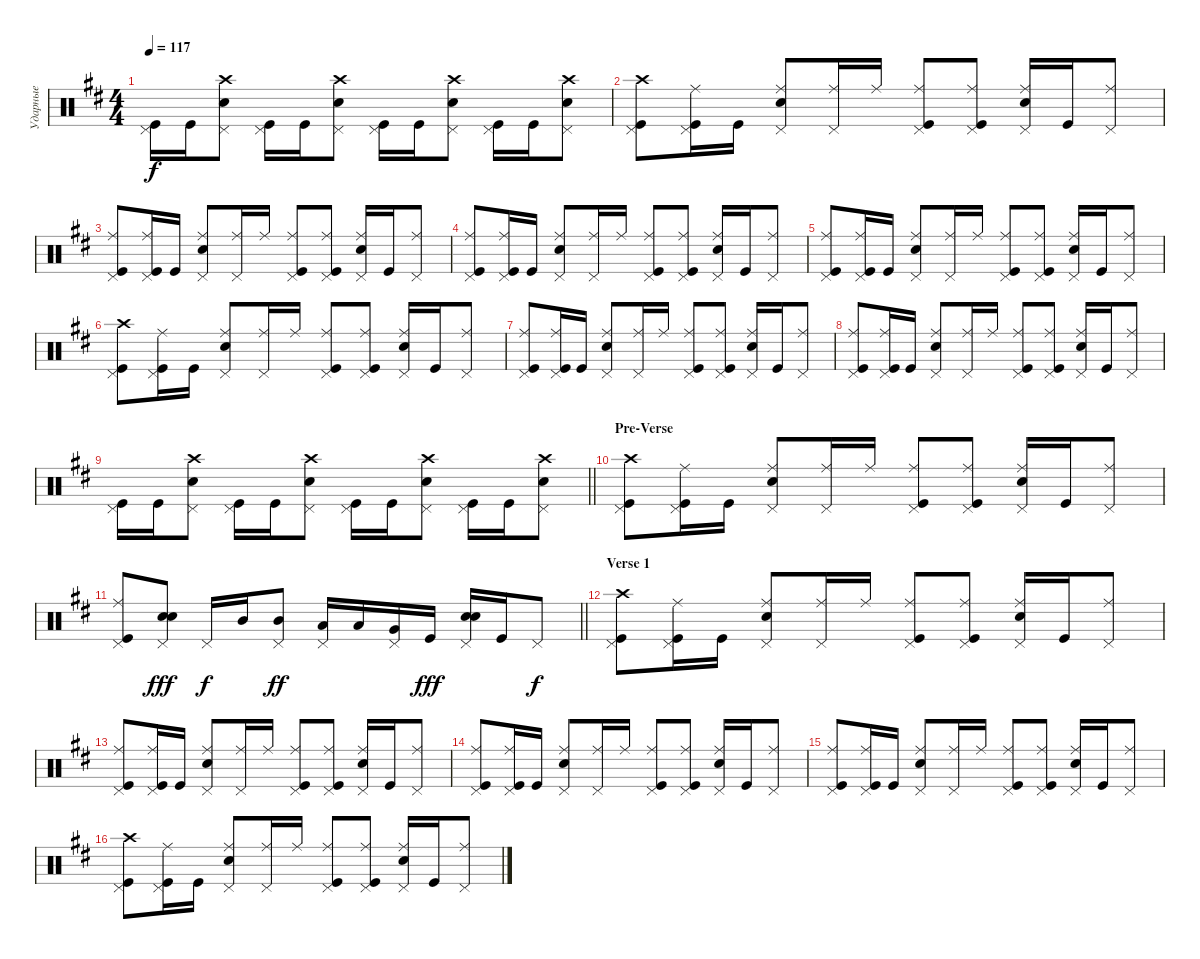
\track ("Ударные" "Ударные") {instrument percussion}
\staff {score}
\articulation defaults
\ts (4 4)
\tempo 117
\clef neutral
\ks d
("Pedal Hi-Hat (hit)" "Kick (hit)").16{dy f} "Kick (hit)".16 ("Snare (hit) 2" "Crash high (hit)" "Pedal Hi-Hat (hit)").8 ("Kick (hit)" "Pedal Hi-Hat (hit)").16 "Kick (hit)".16 ("Snare (hit) 2" "Crash high (hit)" "Pedal Hi-Hat (hit)").8 ("Kick (hit)" "Pedal Hi-Hat (hit)").16 "Kick (hit)".16 ("Snare (hit) 2" "Crash high (hit)" "Pedal Hi-Hat (hit)").8 ("Kick (hit)" "Pedal Hi-Hat (hit)").16 "Kick (hit)".16 ("Snare (hit) 2" "Crash high (hit)" "Pedal Hi-Hat (hit)").8 |
("Kick (hit)" "Crash high (hit)" "Pedal Hi-Hat (hit)").8 ("Kick (hit)" "Ride (middle)" "Pedal Hi-Hat (hit)").16 "Kick (hit)".16 ("Snare (hit) 2" "Ride (middle)" "Pedal Hi-Hat (hit)").8 ("Ride (middle)" "Pedal Hi-Hat (hit)").16 "Ride (middle)".16 ("Kick (hit)" "Ride (middle)" "Pedal Hi-Hat (hit)").8 ("Ride (middle)" "Kick (hit)" "Pedal Hi-Hat (hit)").8 ("Snare (hit) 2" "Ride (middle)" "Pedal Hi-Hat (hit)").16 "Kick (hit)".16 ("Ride (middle)" "Pedal Hi-Hat (hit)").8 |
("Kick (hit)" "Ride (middle)" "Pedal Hi-Hat (hit)").8 ("Kick (hit)" "Ride (middle)" "Pedal Hi-Hat (hit)").16 "Kick (hit)".16 ("Snare (hit) 2" "Ride (middle)" "Pedal Hi-Hat (hit)").8 ("Ride (middle)" "Pedal Hi-Hat (hit)").16 "Ride (middle)".16 ("Kick (hit)" "Ride (middle)" "Pedal Hi-Hat (hit)").8 ("Ride (middle)" "Kick (hit)" "Pedal Hi-Hat (hit)").8 ("Snare (hit) 2" "Ride (middle)" "Pedal Hi-Hat (hit)").16 "Kick (hit)".16 ("Ride (middle)" "Pedal Hi-Hat (hit)").8 |
("Kick (hit)" "Ride (middle)" "Pedal Hi-Hat (hit)").8 ("Kick (hit)" "Ride (middle)" "Pedal Hi-Hat (hit)").16 "Kick (hit)".16 ("Snare (hit) 2" "Ride (middle)" "Pedal Hi-Hat (hit)").8 ("Ride (middle)" "Pedal Hi-Hat (hit)").16 "Ride (middle)".16 ("Kick (hit)" "Ride (middle)" "Pedal Hi-Hat (hit)").8 ("Ride (middle)" "Kick (hit)" "Pedal Hi-Hat (hit)").8 ("Snare (hit) 2" "Ride (middle)" "Pedal Hi-Hat (hit)").16 "Kick (hit)".16 ("Ride (middle)" "Pedal Hi-Hat (hit)").8 |
("Kick (hit)" "Ride (middle)" "Pedal Hi-Hat (hit)").8 ("Kick (hit)" "Ride (middle)" "Pedal Hi-Hat (hit)").16 "Kick (hit)".16 ("Snare (hit) 2" "Ride (middle)" "Pedal Hi-Hat (hit)").8 ("Ride (middle)" "Pedal Hi-Hat (hit)").16 "Ride (middle)".16 ("Kick (hit)" "Ride (middle)" "Pedal Hi-Hat (hit)").8 ("Ride (middle)" "Kick (hit)" "Pedal Hi-Hat (hit)").8 ("Snare (hit) 2" "Ride (middle)" "Pedal Hi-Hat (hit)").16 "Kick (hit)".16 ("Ride (middle)" "Pedal Hi-Hat (hit)").8 |
("Kick (hit)" "Crash high (hit)" "Pedal Hi-Hat (hit)").8 ("Kick (hit)" "Ride (middle)" "Pedal Hi-Hat (hit)").16 "Kick (hit)".16 ("Snare (hit) 2" "Ride (middle)" "Pedal Hi-Hat (hit)").8 ("Ride (middle)" "Pedal Hi-Hat (hit)").16 "Ride (middle)".16 ("Kick (hit)" "Ride (middle)" "Pedal Hi-Hat (hit)").8 ("Ride (middle)" "Kick (hit)" "Pedal Hi-Hat (hit)").8 ("Snare (hit) 2" "Ride (middle)" "Pedal Hi-Hat (hit)").16 "Kick (hit)".16 ("Ride (middle)" "Pedal Hi-Hat (hit)").8 |
("Kick (hit)" "Ride (middle)" "Pedal Hi-Hat (hit)").8 ("Kick (hit)" "Ride (middle)" "Pedal Hi-Hat (hit)").16 "Kick (hit)".16 ("Snare (hit) 2" "Ride (middle)" "Pedal Hi-Hat (hit)").8 ("Ride (middle)" "Pedal Hi-Hat (hit)").16 "Ride (middle)".16 ("Kick (hit)" "Ride (middle)" "Pedal Hi-Hat (hit)").8 ("Ride (middle)" "Kick (hit)" "Pedal Hi-Hat (hit)").8 ("Snare (hit) 2" "Ride (middle)" "Pedal Hi-Hat (hit)").16 "Kick (hit)".16 ("Ride (middle)" "Pedal Hi-Hat (hit)").8 |
("Kick (hit)" "Ride (middle)" "Pedal Hi-Hat (hit)").8 ("Kick (hit)" "Ride (middle)" "Pedal Hi-Hat (hit)").16 "Kick (hit)".16 ("Snare (hit) 2" "Ride (middle)" "Pedal Hi-Hat (hit)").8 ("Ride (middle)" "Pedal Hi-Hat (hit)").16 "Ride (middle)".16 ("Kick (hit)" "Ride (middle)" "Pedal Hi-Hat (hit)").8 ("Ride (middle)" "Kick (hit)" "Pedal Hi-Hat (hit)").8 ("Snare (hit) 2" "Ride (middle)" "Pedal Hi-Hat (hit)").16 "Kick (hit)".16 ("Ride (middle)" "Pedal Hi-Hat (hit)").8 |
\barLineRight lightlight
("Pedal Hi-Hat (hit)" "Kick (hit)").16 "Kick (hit)".16 ("Snare (hit) 2" "Crash high (hit)" "Pedal Hi-Hat (hit)").8 ("Kick (hit)" "Pedal Hi-Hat (hit)").16 "Kick (hit)".16 ("Snare (hit) 2" "Crash high (hit)" "Pedal Hi-Hat (hit)").8 ("Kick (hit)" "Pedal Hi-Hat (hit)").16 "Kick (hit)".16 ("Snare (hit) 2" "Crash high (hit)" "Pedal Hi-Hat (hit)").8 ("Kick (hit)" "Pedal Hi-Hat (hit)").16 "Kick (hit)".16 ("Snare (hit) 2" "Crash high (hit)" "Pedal Hi-Hat (hit)").8 |
\section ("" "Pre-Verse")
("Kick (hit)" "Crash high (hit)" "Pedal Hi-Hat (hit)").8 ("Kick (hit)" "Ride (middle)" "Pedal Hi-Hat (hit)").16 "Kick (hit)".16 ("Snare (hit) 2" "Ride (middle)" "Pedal Hi-Hat (hit)").8 ("Ride (middle)" "Pedal Hi-Hat (hit)").16 "Ride (middle)".16 ("Kick (hit)" "Ride (middle)" "Pedal Hi-Hat (hit)").8 ("Ride (middle)" "Kick (hit)" "Pedal Hi-Hat (hit)").8 ("Snare (hit) 2" "Ride (middle)" "Pedal Hi-Hat (hit)").16 "Kick (hit)".16 ("Ride (middle)" "Pedal Hi-Hat (hit)").8 |
\barLineRight lightlight
("Kick (hit)" "Pedal Hi-Hat (hit)" "Ride (middle)").8 ("Snare (hit) 2" "Snare (hit) 2" "Pedal Hi-Hat (hit)").8{bd 480 dy fff} "Pedal Hi-Hat (hit)".16{dy f} "Mid Tom (hit)".16 ("Pedal Hi-Hat (hit)" "Mid Tom (hit)").8{dy ff} ("Pedal Hi-Hat (hit)" "Low Tom (hit)").16 "Low Tom (hit)".16 ("Pedal Hi-Hat (hit)" "Very Low Tom (hit)").16 "Kick (hit)".16{dy fff} ("Snare (hit) 2" "Pedal Hi-Hat (hit)" "Snare (hit) 2").16{bd 60} "Kick (hit)".16 "Pedal Hi-Hat (hit)".8{dy f} |
\section ("" "Verse 1")
("Kick (hit)" "Crash high (hit)" "Pedal Hi-Hat (hit)").8 ("Kick (hit)" "Ride (middle)" "Pedal Hi-Hat (hit)").16 "Kick (hit)".16 ("Snare (hit) 2" "Ride (middle)" "Pedal Hi-Hat (hit)").8 ("Ride (middle)" "Pedal Hi-Hat (hit)").16 "Ride (middle)".16 ("Kick (hit)" "Ride (middle)" "Pedal Hi-Hat (hit)").8 ("Ride (middle)" "Kick (hit)" "Pedal Hi-Hat (hit)").8 ("Snare (hit) 2" "Ride (middle)" "Pedal Hi-Hat (hit)").16 "Kick (hit)".16 ("Ride (middle)" "Pedal Hi-Hat (hit)").8 |
("Kick (hit)" "Ride (middle)" "Pedal Hi-Hat (hit)").8 ("Kick (hit)" "Ride (middle)" "Pedal Hi-Hat (hit)").16 "Kick (hit)".16 ("Snare (hit) 2" "Ride (middle)" "Pedal Hi-Hat (hit)").8 ("Ride (middle)" "Pedal Hi-Hat (hit)").16 "Ride (middle)".16 ("Kick (hit)" "Ride (middle)" "Pedal Hi-Hat (hit)").8 ("Ride (middle)" "Kick (hit)" "Pedal Hi-Hat (hit)").8 ("Snare (hit) 2" "Ride (middle)" "Pedal Hi-Hat (hit)").16 "Kick (hit)".16 ("Ride (middle)" "Pedal Hi-Hat (hit)").8 |
("Kick (hit)" "Ride (middle)" "Pedal Hi-Hat (hit)").8 ("Kick (hit)" "Ride (middle)" "Pedal Hi-Hat (hit)").16 "Kick (hit)".16 ("Snare (hit) 2" "Ride (middle)" "Pedal Hi-Hat (hit)").8 ("Ride (middle)" "Pedal Hi-Hat (hit)").16 "Ride (middle)".16 ("Kick (hit)" "Ride (middle)" "Pedal Hi-Hat (hit)").8 ("Ride (middle)" "Kick (hit)" "Pedal Hi-Hat (hit)").8 ("Snare (hit) 2" "Ride (middle)" "Pedal Hi-Hat (hit)").16 "Kick (hit)".16 ("Ride (middle)" "Pedal Hi-Hat (hit)").8 |
("Kick (hit)" "Ride (middle)" "Pedal Hi-Hat (hit)").8 ("Kick (hit)" "Ride (middle)" "Pedal Hi-Hat (hit)").16 "Kick (hit)".16 ("Snare (hit) 2" "Ride (middle)" "Pedal Hi-Hat (hit)").8 ("Ride (middle)" "Pedal Hi-Hat (hit)").16 "Ride (middle)".16 ("Kick (hit)" "Ride (middle)" "Pedal Hi-Hat (hit)").8 ("Ride (middle)" "Kick (hit)" "Pedal Hi-Hat (hit)").8 ("Snare (hit) 2" "Ride (middle)" "Pedal Hi-Hat (hit)").16 "Kick (hit)".16 ("Ride (middle)" "Pedal Hi-Hat (hit)").8 |
("Kick (hit)" "Crash high (hit)" "Pedal Hi-Hat (hit)").8 ("Kick (hit)" "Ride (middle)" "Pedal Hi-Hat (hit)").16 "Kick (hit)".16 ("Snare (hit) 2" "Ride (middle)" "Pedal Hi-Hat (hit)").8 ("Ride (middle)" "Pedal Hi-Hat (hit)").16 "Ride (middle)".16 ("Kick (hit)" "Ride (middle)" "Pedal Hi-Hat (hit)").8 ("Ride (middle)" "Kick (hit)" "Pedal Hi-Hat (hit)").8 ("Snare (hit) 2" "Ride (middle)" "Pedal Hi-Hat (hit)").16 "Kick (hit)".16 ("Ride (middle)" "Pedal Hi-Hat (hit)").8
